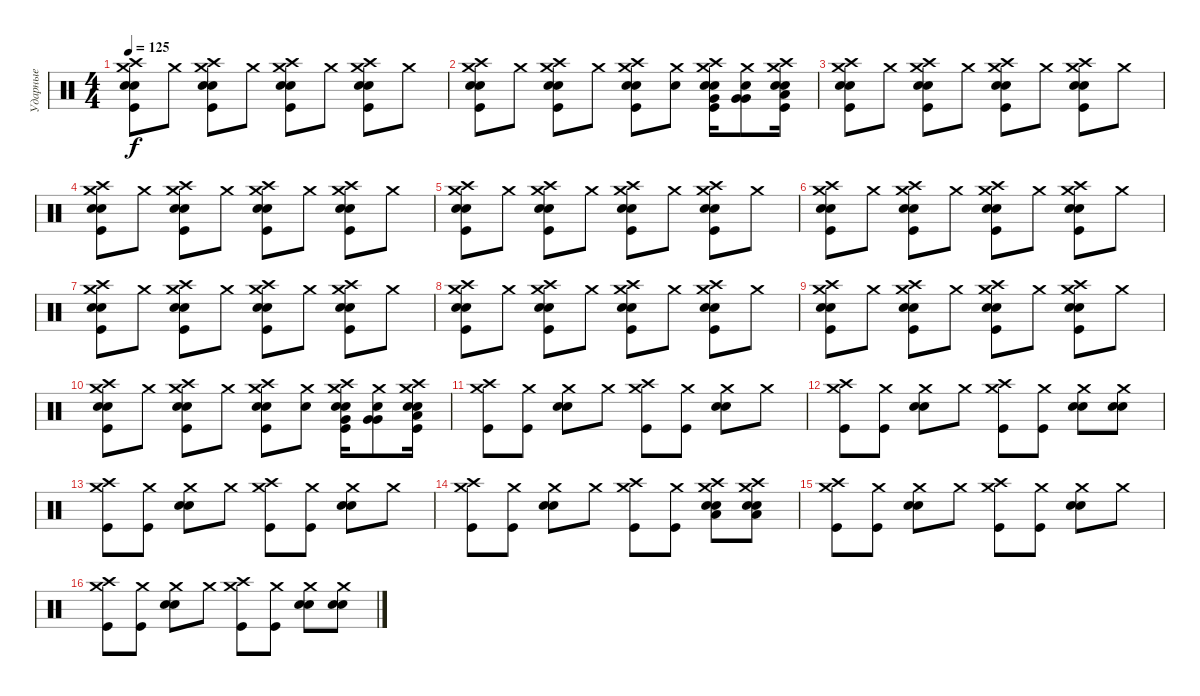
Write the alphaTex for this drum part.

\track ("Ударные" "Ударные") {instrument percussion}
\staff {score}
\articulation defaults
\ts (4 4)
\tempo 125
\clef neutral
\ks c
("Crash medium (hit)" "Crash high (hit)" "Snare (hit) 2" "Snare (hit) 2" "Kick (hit)").8{dy f} "Crash medium (hit)".8 ("Crash medium (hit)" "Crash high (hit)" "Snare (hit) 2" "Snare (hit) 2" "Kick (hit)").8 "Crash medium (hit)".8 ("Crash medium (hit)" "Crash high (hit)" "Snare (hit) 2" "Snare (hit) 2" "Kick (hit)").8 "Crash medium (hit)".8 ("Crash medium (hit)" "Crash high (hit)" "Snare (hit) 2" "Snare (hit) 2" "Kick (hit)").8 "Crash medium (hit)".8 |
("Crash medium (hit)" "Crash high (hit)" "Snare (hit) 2" "Snare (hit) 2" "Kick (hit)").8 "Crash medium (hit)".8 ("Crash medium (hit)" "Crash high (hit)" "Snare (hit) 2" "Snare (hit) 2" "Kick (hit)").8 "Crash medium (hit)".8 ("Crash medium (hit)" "Crash high (hit)" "Snare (hit) 2" "Snare (hit) 2" "Kick (hit)").8 ("Crash medium (hit)" "Electric Snare (hit)").8 ("Crash medium (hit)" "Crash high (hit)" "Snare (hit) 2" "Snare (hit) 2" "Very Low Tom (hit)" "Kick (hit)").16 ("Crash medium (hit)" "Electric Snare (hit)" "Very Low Tom (hit)" "Very Low Tom (hit)").8 ("Crash high (hit)" "Crash medium (hit)" "Snare (hit) 2" "Snare (hit) 2" "Low Floor Tom (hit)" "Kick (hit)").16 |
("Crash medium (hit)" "Crash high (hit)" "Snare (hit) 2" "Snare (hit) 2" "Kick (hit)").8 "Crash medium (hit)".8 ("Crash medium (hit)" "Crash high (hit)" "Snare (hit) 2" "Snare (hit) 2" "Kick (hit)").8 "Crash medium (hit)".8 ("Crash medium (hit)" "Crash high (hit)" "Snare (hit) 2" "Snare (hit) 2" "Kick (hit)").8 "Crash medium (hit)".8 ("Crash medium (hit)" "Crash high (hit)" "Snare (hit) 2" "Snare (hit) 2" "Kick (hit)").8 "Crash medium (hit)".8 |
("Crash medium (hit)" "Crash high (hit)" "Snare (hit) 2" "Snare (hit) 2" "Kick (hit)").8 "Crash medium (hit)".8 ("Crash medium (hit)" "Crash high (hit)" "Snare (hit) 2" "Snare (hit) 2" "Kick (hit)").8 "Crash medium (hit)".8 ("Crash medium (hit)" "Crash high (hit)" "Snare (hit) 2" "Snare (hit) 2" "Kick (hit)").8 "Crash medium (hit)".8 ("Crash medium (hit)" "Crash high (hit)" "Snare (hit) 2" "Snare (hit) 2" "Kick (hit)").8 "Crash medium (hit)".8 |
("Crash medium (hit)" "Crash high (hit)" "Snare (hit) 2" "Snare (hit) 2" "Kick (hit)").8 "Crash medium (hit)".8 ("Crash medium (hit)" "Crash high (hit)" "Snare (hit) 2" "Snare (hit) 2" "Kick (hit)").8 "Crash medium (hit)".8 ("Crash medium (hit)" "Crash high (hit)" "Snare (hit) 2" "Snare (hit) 2" "Kick (hit)").8 "Crash medium (hit)".8 ("Crash medium (hit)" "Crash high (hit)" "Snare (hit) 2" "Snare (hit) 2" "Kick (hit)").8 "Crash medium (hit)".8 |
("Crash medium (hit)" "Crash high (hit)" "Snare (hit) 2" "Snare (hit) 2" "Kick (hit)").8 "Crash medium (hit)".8 ("Crash medium (hit)" "Crash high (hit)" "Snare (hit) 2" "Snare (hit) 2" "Kick (hit)").8 "Crash medium (hit)".8 ("Crash medium (hit)" "Crash high (hit)" "Snare (hit) 2" "Snare (hit) 2" "Kick (hit)").8 "Crash medium (hit)".8 ("Crash medium (hit)" "Crash high (hit)" "Snare (hit) 2" "Snare (hit) 2" "Kick (hit)").8 "Crash medium (hit)".8 |
("Crash medium (hit)" "Crash high (hit)" "Snare (hit) 2" "Snare (hit) 2" "Kick (hit)").8 "Crash medium (hit)".8 ("Crash medium (hit)" "Crash high (hit)" "Snare (hit) 2" "Snare (hit) 2" "Kick (hit)").8 "Crash medium (hit)".8 ("Crash medium (hit)" "Crash high (hit)" "Snare (hit) 2" "Snare (hit) 2" "Kick (hit)").8 "Crash medium (hit)".8 ("Crash medium (hit)" "Crash high (hit)" "Snare (hit) 2" "Snare (hit) 2" "Kick (hit)").8 "Crash medium (hit)".8 |
("Crash medium (hit)" "Crash high (hit)" "Snare (hit) 2" "Snare (hit) 2" "Kick (hit)").8 "Crash medium (hit)".8 ("Crash medium (hit)" "Crash high (hit)" "Snare (hit) 2" "Snare (hit) 2" "Kick (hit)").8 "Crash medium (hit)".8 ("Crash medium (hit)" "Crash high (hit)" "Snare (hit) 2" "Snare (hit) 2" "Kick (hit)").8 "Crash medium (hit)".8 ("Crash medium (hit)" "Crash high (hit)" "Snare (hit) 2" "Snare (hit) 2" "Kick (hit)").8 "Crash medium (hit)".8 |
("Crash medium (hit)" "Crash high (hit)" "Snare (hit) 2" "Snare (hit) 2" "Kick (hit)").8 "Crash medium (hit)".8 ("Crash medium (hit)" "Crash high (hit)" "Snare (hit) 2" "Snare (hit) 2" "Kick (hit)").8 "Crash medium (hit)".8 ("Crash medium (hit)" "Crash high (hit)" "Snare (hit) 2" "Snare (hit) 2" "Kick (hit)").8 "Crash medium (hit)".8 ("Crash medium (hit)" "Crash high (hit)" "Snare (hit) 2" "Snare (hit) 2" "Kick (hit)").8 "Crash medium (hit)".8 |
("Crash medium (hit)" "Crash high (hit)" "Snare (hit) 2" "Snare (hit) 2" "Kick (hit)").8 "Crash medium (hit)".8 ("Crash medium (hit)" "Crash high (hit)" "Snare (hit) 2" "Snare (hit) 2" "Kick (hit)").8 "Crash medium (hit)".8 ("Crash medium (hit)" "Crash high (hit)" "Snare (hit) 2" "Snare (hit) 2" "Kick (hit)").8 ("Crash medium (hit)" "Electric Snare (hit)").8 ("Crash medium (hit)" "Crash high (hit)" "Snare (hit) 2" "Snare (hit) 2" "Very Low Tom (hit)" "Kick (hit)").16 ("Crash medium (hit)" "Electric Snare (hit)" "Very Low Tom (hit)" "Very Low Tom (hit)").8 ("Crash high (hit)" "Crash medium (hit)" "Snare (hit) 2" "Snare (hit) 2" "Low Floor Tom (hit)" "Kick (hit)").16 |
("Crash medium (hit)" "Crash high (hit)" "Kick (hit)").8 ("Crash medium (hit)" "Kick (hit)").8 ("Crash medium (hit)" "Snare (hit) 2" "Snare (hit) 2").8 "Crash medium (hit)".8 ("Crash medium (hit)" "Crash high (hit)" "Kick (hit)").8 ("Crash medium (hit)" "Kick (hit)").8 ("Crash medium (hit)" "Snare (hit) 2" "Snare (hit) 2").8 "Crash medium (hit)".8 |
("Crash medium (hit)" "Crash high (hit)" "Kick (hit)").8 ("Crash medium (hit)" "Kick (hit)").8 ("Crash medium (hit)" "Snare (hit) 2" "Snare (hit) 2").8 "Crash medium (hit)".8 ("Crash medium (hit)" "Crash high (hit)" "Kick (hit)").8 ("Crash medium (hit)" "Kick (hit)").8 ("Crash medium (hit)" "Snare (hit) 2" "Snare (hit) 2").8 ("Crash medium (hit)" "Snare (hit) 2" "Snare (hit) 2").8 |
("Crash medium (hit)" "Crash high (hit)" "Kick (hit)").8 ("Crash medium (hit)" "Kick (hit)").8 ("Crash medium (hit)" "Snare (hit) 2" "Snare (hit) 2").8 "Crash medium (hit)".8 ("Crash medium (hit)" "Crash high (hit)" "Kick (hit)").8 ("Crash medium (hit)" "Kick (hit)").8 ("Crash medium (hit)" "Snare (hit) 2" "Snare (hit) 2").8 "Crash medium (hit)".8 |
("Crash medium (hit)" "Crash high (hit)" "Kick (hit)").8 ("Crash medium (hit)" "Kick (hit)").8 ("Crash medium (hit)" "Snare (hit) 2" "Snare (hit) 2").8 "Crash medium (hit)".8 ("Crash medium (hit)" "Crash high (hit)" "Kick (hit)").8 ("Crash medium (hit)" "Kick (hit)").8 ("Crash medium (hit)" "Crash high (hit)" "Low Floor Tom (hit)" "Snare (hit) 2" "Snare (hit) 2").8 ("Crash medium (hit)" "Crash high (hit)" "Low Floor Tom (hit)" "Snare (hit) 2" "Snare (hit) 2").8 |
("Crash medium (hit)" "Crash high (hit)" "Kick (hit)").8 ("Crash medium (hit)" "Kick (hit)").8 ("Crash medium (hit)" "Snare (hit) 2" "Snare (hit) 2").8 "Crash medium (hit)".8 ("Crash medium (hit)" "Crash high (hit)" "Kick (hit)").8 ("Crash medium (hit)" "Kick (hit)").8 ("Crash medium (hit)" "Snare (hit) 2" "Snare (hit) 2").8 "Crash medium (hit)".8 |
("Crash medium (hit)" "Crash high (hit)" "Kick (hit)").8 ("Crash medium (hit)" "Kick (hit)").8 ("Crash medium (hit)" "Snare (hit) 2" "Snare (hit) 2").8 "Crash medium (hit)".8 ("Crash medium (hit)" "Crash high (hit)" "Kick (hit)").8 ("Crash medium (hit)" "Kick (hit)").8 ("Crash medium (hit)" "Snare (hit) 2" "Snare (hit) 2").8 ("Crash medium (hit)" "Snare (hit) 2" "Snare (hit) 2").8
